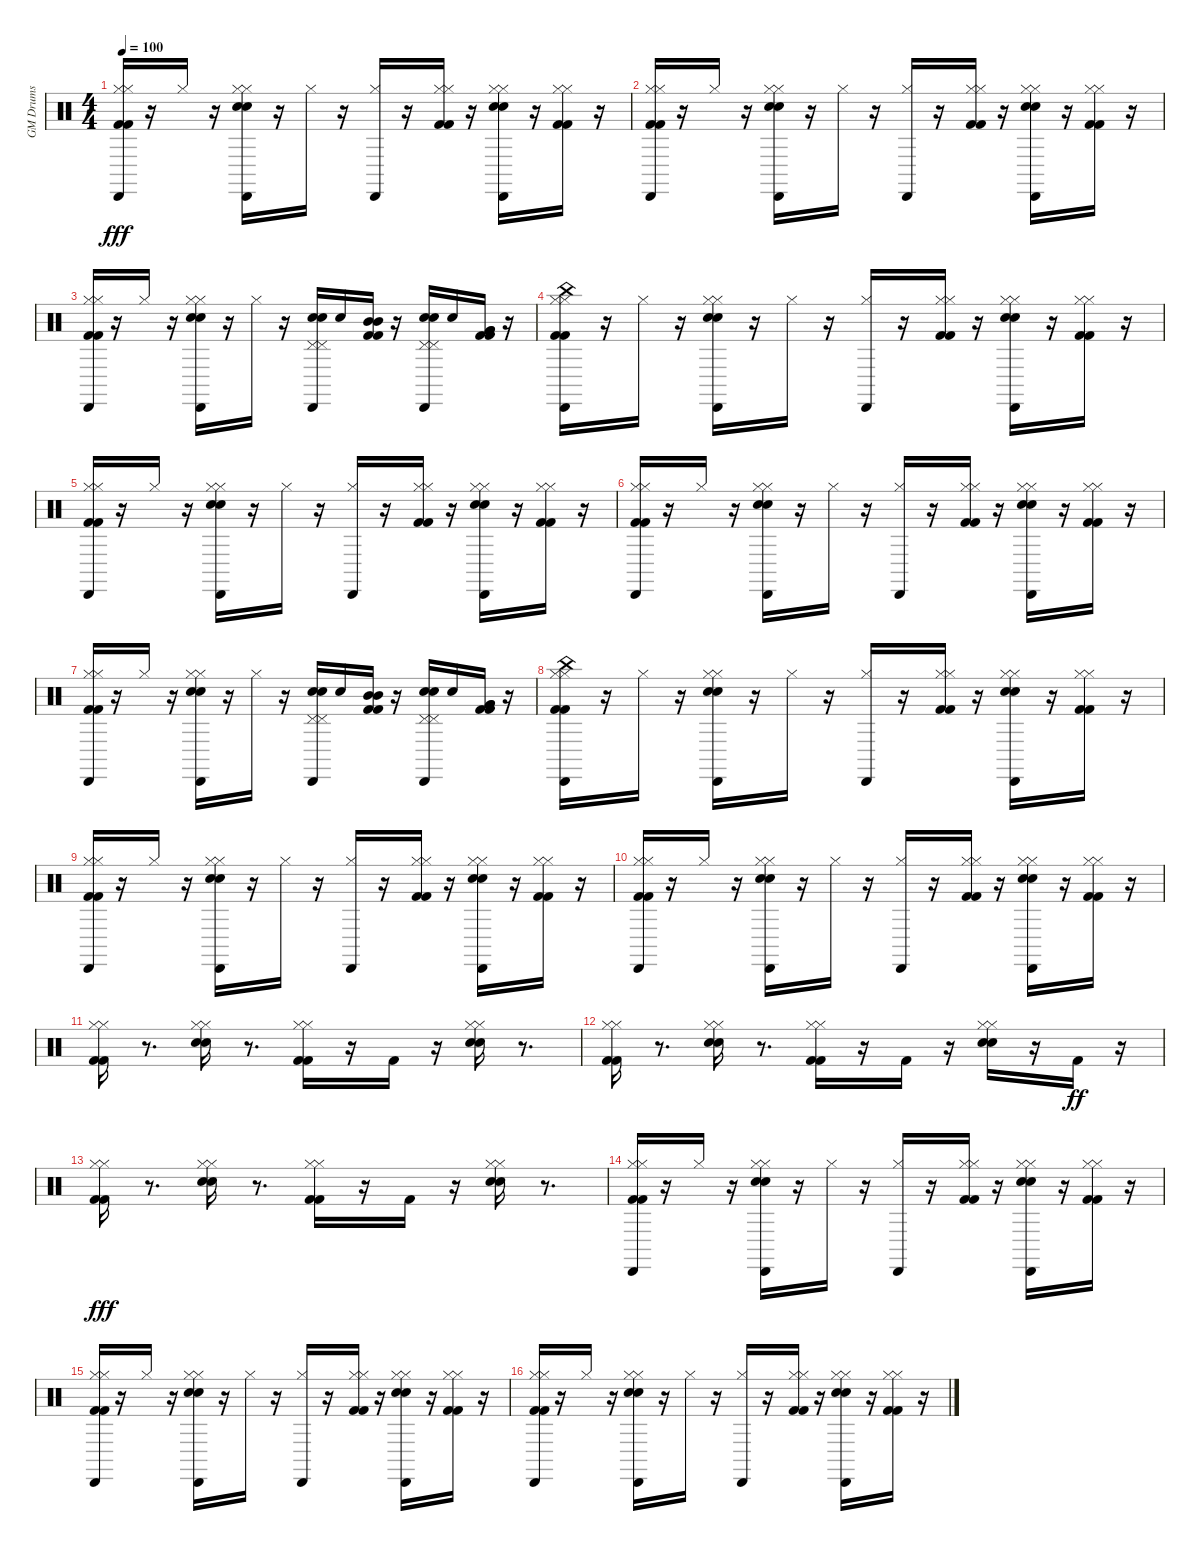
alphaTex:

\track ("GM Drums" "GM Drums") {instrument percussion}
\staff {score}
\articulation defaults
\ts (4 4)
\tempo 100
\clef neutral
\ks c
("Kick (hit) 2" "Kick (hit) 2" "Hi-Hat (closed)" "Hi-Hat (closed)" "Cabasa (hit)").16{dy fff} r.16 "Hi-Hat (closed)".16 r.16 ("Snare (hit) 2" "Snare (hit) 2" "Hi-Hat (closed)" "Hi-Hat (closed)" "Cabasa (hit)").16 r.16 "Hi-Hat (closed)".16 r.16 ("Hi-Hat (closed)" "Cabasa (hit)").16 r.16 ("Kick (hit) 2" "Kick (hit) 2" "Hi-Hat (closed)" "Hi-Hat (closed)").16 r.16 ("Snare (hit) 2" "Snare (hit) 2" "Hi-Hat (closed)" "Hi-Hat (closed)" "Cabasa (hit)").16 r.16 ("Kick (hit) 2" "Kick (hit) 2" "Hi-Hat (closed)" "Hi-Hat (closed)").16 r.16 |
("Kick (hit) 2" "Kick (hit) 2" "Hi-Hat (closed)" "Hi-Hat (closed)" "Cabasa (hit)").16 r.16 "Hi-Hat (closed)".16 r.16 ("Snare (hit) 2" "Snare (hit) 2" "Hi-Hat (closed)" "Hi-Hat (closed)" "Cabasa (hit)").16 r.16 "Hi-Hat (closed)".16 r.16 ("Hi-Hat (closed)" "Cabasa (hit)").16 r.16 ("Kick (hit) 2" "Kick (hit) 2" "Hi-Hat (closed)" "Hi-Hat (closed)").16 r.16 ("Snare (hit) 2" "Snare (hit) 2" "Hi-Hat (closed)" "Hi-Hat (closed)" "Cabasa (hit)").16 r.16 ("Kick (hit) 2" "Kick (hit) 2" "Hi-Hat (closed)" "Hi-Hat (closed)").16 r.16 |
("Kick (hit) 2" "Kick (hit) 2" "Hi-Hat (closed)" "Hi-Hat (closed)" "Cabasa (hit)").16 r.16 "Hi-Hat (closed)".16 r.16 ("Snare (hit) 2" "Snare (hit) 2" "Hi-Hat (closed)" "Hi-Hat (closed)" "Cabasa (hit)").16 r.16 "Hi-Hat (closed)".16 r.16 ("Snare (hit) 2" "Snare (hit) 2" "Pedal Hi-Hat (hit)" "Pedal Hi-Hat (hit)" "Cabasa (hit)").16 "Snare (hit) 2".16 ("Kick (hit) 2" "Kick (hit) 2" "Mid Tom (hit)" "Mid Tom (hit)").16 r.16 ("Snare (hit) 2" "Snare (hit) 2" "Pedal Hi-Hat (hit)" "Pedal Hi-Hat (hit)" "Cabasa (hit)").16 "Snare (hit) 2".16 ("Kick (hit) 2" "Kick (hit) 2" "Very Low Tom (hit)" "Very Low Tom (hit)").16 r.16 |
("Kick (hit) 2" "Kick (hit) 2" "Hi-Hat (closed)" "Hi-Hat (closed)" "China (hit)" "Cabasa (hit)").16 r.16 "Hi-Hat (closed)".16 r.16 ("Snare (hit) 2" "Snare (hit) 2" "Hi-Hat (closed)" "Hi-Hat (closed)" "Cabasa (hit)").16 r.16 "Hi-Hat (closed)".16 r.16 ("Hi-Hat (closed)" "Cabasa (hit)").16 r.16 ("Kick (hit) 2" "Kick (hit) 2" "Hi-Hat (closed)" "Hi-Hat (closed)").16 r.16 ("Snare (hit) 2" "Snare (hit) 2" "Hi-Hat (closed)" "Hi-Hat (closed)" "Cabasa (hit)").16 r.16 ("Kick (hit) 2" "Kick (hit) 2" "Hi-Hat (closed)" "Hi-Hat (closed)").16 r.16 |
("Kick (hit) 2" "Kick (hit) 2" "Hi-Hat (closed)" "Hi-Hat (closed)" "Cabasa (hit)").16 r.16 "Hi-Hat (closed)".16 r.16 ("Snare (hit) 2" "Snare (hit) 2" "Hi-Hat (closed)" "Hi-Hat (closed)" "Cabasa (hit)").16 r.16 "Hi-Hat (closed)".16 r.16 ("Hi-Hat (closed)" "Cabasa (hit)").16 r.16 ("Kick (hit) 2" "Kick (hit) 2" "Hi-Hat (closed)" "Hi-Hat (closed)").16 r.16 ("Snare (hit) 2" "Snare (hit) 2" "Hi-Hat (closed)" "Hi-Hat (closed)" "Cabasa (hit)").16 r.16 ("Kick (hit) 2" "Kick (hit) 2" "Hi-Hat (closed)" "Hi-Hat (closed)").16 r.16 |
("Kick (hit) 2" "Kick (hit) 2" "Hi-Hat (closed)" "Hi-Hat (closed)" "Cabasa (hit)").16 r.16 "Hi-Hat (closed)".16 r.16 ("Snare (hit) 2" "Snare (hit) 2" "Hi-Hat (closed)" "Hi-Hat (closed)" "Cabasa (hit)").16 r.16 "Hi-Hat (closed)".16 r.16 ("Hi-Hat (closed)" "Cabasa (hit)").16 r.16 ("Kick (hit) 2" "Kick (hit) 2" "Hi-Hat (closed)" "Hi-Hat (closed)").16 r.16 ("Snare (hit) 2" "Snare (hit) 2" "Hi-Hat (closed)" "Hi-Hat (closed)" "Cabasa (hit)").16 r.16 ("Kick (hit) 2" "Kick (hit) 2" "Hi-Hat (closed)" "Hi-Hat (closed)").16 r.16 |
("Kick (hit) 2" "Kick (hit) 2" "Hi-Hat (closed)" "Hi-Hat (closed)" "Cabasa (hit)").16 r.16 "Hi-Hat (closed)".16 r.16 ("Snare (hit) 2" "Snare (hit) 2" "Hi-Hat (closed)" "Hi-Hat (closed)" "Cabasa (hit)").16 r.16 "Hi-Hat (closed)".16 r.16 ("Snare (hit) 2" "Snare (hit) 2" "Pedal Hi-Hat (hit)" "Pedal Hi-Hat (hit)" "Cabasa (hit)").16 "Snare (hit) 2".16 ("Kick (hit) 2" "Kick (hit) 2" "Mid Tom (hit)" "Mid Tom (hit)").16 r.16 ("Snare (hit) 2" "Snare (hit) 2" "Pedal Hi-Hat (hit)" "Pedal Hi-Hat (hit)" "Cabasa (hit)").16 "Snare (hit) 2".16 ("Kick (hit) 2" "Kick (hit) 2" "Very Low Tom (hit)" "Very Low Tom (hit)").16 r.16 |
("Kick (hit) 2" "Kick (hit) 2" "Hi-Hat (closed)" "Hi-Hat (closed)" "China (hit)" "Cabasa (hit)").16 r.16 "Hi-Hat (closed)".16 r.16 ("Snare (hit) 2" "Snare (hit) 2" "Hi-Hat (closed)" "Hi-Hat (closed)" "Cabasa (hit)").16 r.16 "Hi-Hat (closed)".16 r.16 ("Hi-Hat (closed)" "Cabasa (hit)").16 r.16 ("Kick (hit) 2" "Kick (hit) 2" "Hi-Hat (closed)" "Hi-Hat (closed)").16 r.16 ("Snare (hit) 2" "Snare (hit) 2" "Hi-Hat (closed)" "Hi-Hat (closed)" "Cabasa (hit)").16 r.16 ("Kick (hit) 2" "Kick (hit) 2" "Hi-Hat (closed)" "Hi-Hat (closed)").16 r.16 |
("Kick (hit) 2" "Kick (hit) 2" "Hi-Hat (closed)" "Hi-Hat (closed)" "Cabasa (hit)").16 r.16 "Hi-Hat (closed)".16 r.16 ("Snare (hit) 2" "Snare (hit) 2" "Hi-Hat (closed)" "Hi-Hat (closed)" "Cabasa (hit)").16 r.16 "Hi-Hat (closed)".16 r.16 ("Hi-Hat (closed)" "Cabasa (hit)").16 r.16 ("Kick (hit) 2" "Kick (hit) 2" "Hi-Hat (closed)" "Hi-Hat (closed)").16 r.16 ("Snare (hit) 2" "Snare (hit) 2" "Hi-Hat (closed)" "Hi-Hat (closed)" "Cabasa (hit)").16 r.16 ("Kick (hit) 2" "Kick (hit) 2" "Hi-Hat (closed)" "Hi-Hat (closed)").16 r.16 |
("Kick (hit) 2" "Kick (hit) 2" "Hi-Hat (closed)" "Hi-Hat (closed)" "Cabasa (hit)").16 r.16 "Hi-Hat (closed)".16 r.16 ("Snare (hit) 2" "Snare (hit) 2" "Hi-Hat (closed)" "Hi-Hat (closed)" "Cabasa (hit)").16 r.16 "Hi-Hat (closed)".16 r.16 ("Hi-Hat (closed)" "Cabasa (hit)").16 r.16 ("Kick (hit) 2" "Kick (hit) 2" "Hi-Hat (closed)" "Hi-Hat (closed)").16 r.16 ("Snare (hit) 2" "Snare (hit) 2" "Hi-Hat (closed)" "Hi-Hat (closed)" "Cabasa (hit)").16 r.16 ("Kick (hit) 2" "Kick (hit) 2" "Hi-Hat (closed)" "Hi-Hat (closed)").16 r.16 |
("Kick (hit) 2" "Kick (hit) 2" "Hi-Hat (closed)" "Hi-Hat (closed)").16 r.8{d} ("Snare (hit) 2" "Snare (hit) 2" "Hi-Hat (closed)" "Hi-Hat (closed)").16 r.8{d} ("Kick (hit) 2" "Kick (hit) 2" "Hi-Hat (closed)" "Hi-Hat (closed)").16 r.16 "Kick (hit) 2".16 r.16 ("Snare (hit) 2" "Snare (hit) 2" "Hi-Hat (closed)" "Hi-Hat (closed)").16 r.8{d} |
("Kick (hit) 2" "Kick (hit) 2" "Hi-Hat (closed)" "Hi-Hat (closed)").16 r.8{d} ("Snare (hit) 2" "Snare (hit) 2" "Hi-Hat (closed)" "Hi-Hat (closed)").16 r.8{d} ("Kick (hit) 2" "Kick (hit) 2" "Hi-Hat (closed)" "Hi-Hat (closed)").16 r.16 "Kick (hit) 2".16 r.16 ("Snare (hit) 2" "Snare (hit) 2" "Hi-Hat (closed)" "Hi-Hat (closed)").16 r.16 "Kick (hit) 2".16{dy ff} r.16 |
("Kick (hit) 2" "Kick (hit) 2" "Hi-Hat (closed)" "Hi-Hat (closed)").16{dy fff} r.8{d} ("Snare (hit) 2" "Snare (hit) 2" "Hi-Hat (closed)" "Hi-Hat (closed)").16 r.8{d} ("Kick (hit) 2" "Kick (hit) 2" "Hi-Hat (closed)" "Hi-Hat (closed)").16 r.16 "Kick (hit) 2".16 r.16 ("Snare (hit) 2" "Snare (hit) 2" "Hi-Hat (closed)" "Hi-Hat (closed)").16 r.8{d} |
("Kick (hit) 2" "Kick (hit) 2" "Hi-Hat (closed)" "Hi-Hat (closed)" "Cabasa (hit)").16 r.16 "Hi-Hat (closed)".16 r.16 ("Snare (hit) 2" "Snare (hit) 2" "Hi-Hat (closed)" "Hi-Hat (closed)" "Cabasa (hit)").16 r.16 "Hi-Hat (closed)".16 r.16 ("Hi-Hat (closed)" "Cabasa (hit)").16 r.16 ("Kick (hit) 2" "Kick (hit) 2" "Hi-Hat (closed)" "Hi-Hat (closed)").16 r.16 ("Snare (hit) 2" "Snare (hit) 2" "Hi-Hat (closed)" "Hi-Hat (closed)" "Cabasa (hit)").16 r.16 ("Kick (hit) 2" "Kick (hit) 2" "Hi-Hat (closed)" "Hi-Hat (closed)").16 r.16 |
("Kick (hit) 2" "Kick (hit) 2" "Hi-Hat (closed)" "Hi-Hat (closed)" "Cabasa (hit)").16 r.16 "Hi-Hat (closed)".16 r.16 ("Snare (hit) 2" "Snare (hit) 2" "Hi-Hat (closed)" "Hi-Hat (closed)" "Cabasa (hit)").16 r.16 "Hi-Hat (closed)".16 r.16 ("Hi-Hat (closed)" "Cabasa (hit)").16 r.16 ("Kick (hit) 2" "Kick (hit) 2" "Hi-Hat (closed)" "Hi-Hat (closed)").16 r.16 ("Snare (hit) 2" "Snare (hit) 2" "Hi-Hat (closed)" "Hi-Hat (closed)" "Cabasa (hit)").16 r.16 ("Kick (hit) 2" "Kick (hit) 2" "Hi-Hat (closed)" "Hi-Hat (closed)").16 r.16 |
("Kick (hit) 2" "Kick (hit) 2" "Hi-Hat (closed)" "Hi-Hat (closed)" "Cabasa (hit)").16 r.16 "Hi-Hat (closed)".16 r.16 ("Snare (hit) 2" "Snare (hit) 2" "Hi-Hat (closed)" "Hi-Hat (closed)" "Cabasa (hit)").16 r.16 "Hi-Hat (closed)".16 r.16 ("Hi-Hat (closed)" "Cabasa (hit)").16 r.16 ("Kick (hit) 2" "Kick (hit) 2" "Hi-Hat (closed)" "Hi-Hat (closed)").16 r.16 ("Snare (hit) 2" "Snare (hit) 2" "Hi-Hat (closed)" "Hi-Hat (closed)" "Cabasa (hit)").16 r.16 ("Kick (hit) 2" "Kick (hit) 2" "Hi-Hat (closed)" "Hi-Hat (closed)").16 r.16
